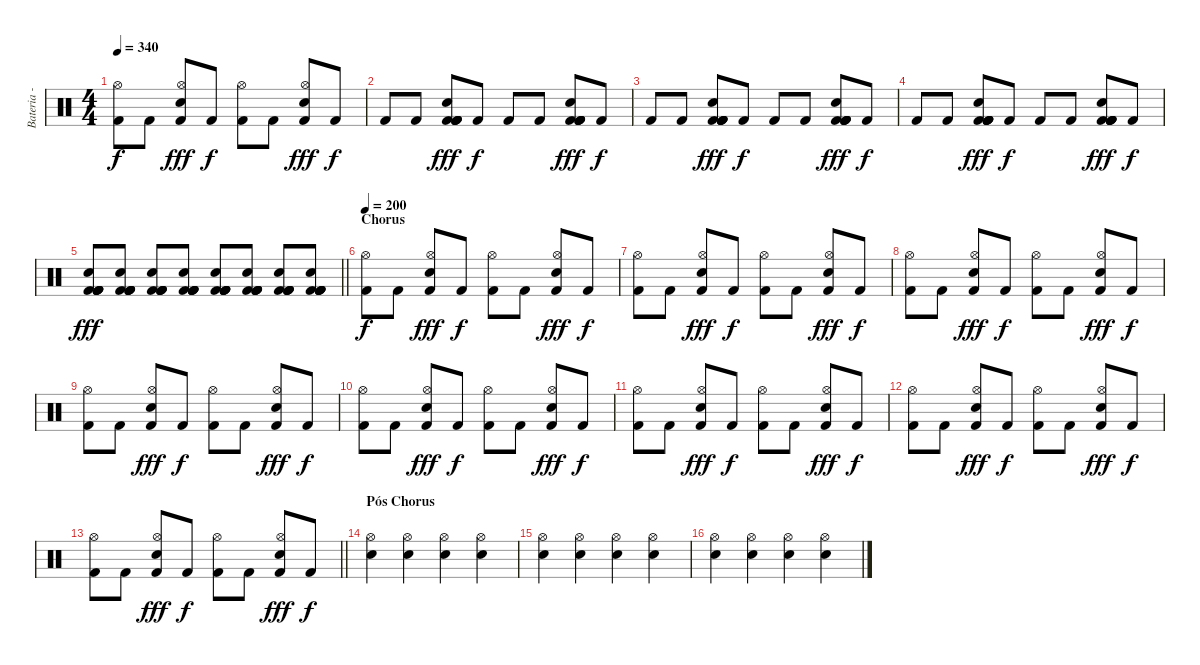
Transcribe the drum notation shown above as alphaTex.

\track ("Bateria - Larzon" "Bateria - ") {instrument percussion}
\staff {score}
\articulation defaults
\ts (4 4)
\tempo 340
\clef neutral
\ks c
("Kick (hit) 2" "Hi-Hat (open)").8{dy f} "Kick (hit) 2".8 ("Kick (hit) 2" "Hi-Hat (open)" "Snare (hit) 2").8{dy fff} "Kick (hit) 2".8{dy f} ("Kick (hit) 2" "Hi-Hat (open)").8 "Kick (hit) 2".8 ("Kick (hit) 2" "Hi-Hat (open)" "Snare (hit) 2").8{dy fff} "Kick (hit) 2".8{dy f} |
"Kick (hit) 2".8 "Kick (hit) 2".8 ("Kick (hit) 2" "Kick (hit) 2" "Kick (hit) 2" "Kick (hit) 2" "Kick (hit) 2" "Snare (hit) 2").8{dy fff} "Kick (hit) 2".8{dy f} "Kick (hit) 2".8 "Kick (hit) 2".8 ("Kick (hit) 2" "Kick (hit) 2" "Kick (hit) 2" "Kick (hit) 2" "Kick (hit) 2" "Snare (hit) 2").8{dy fff} "Kick (hit) 2".8{dy f} |
"Kick (hit) 2".8 "Kick (hit) 2".8 ("Kick (hit) 2" "Kick (hit) 2" "Kick (hit) 2" "Kick (hit) 2" "Kick (hit) 2" "Snare (hit) 2").8{dy fff} "Kick (hit) 2".8{dy f} "Kick (hit) 2".8 "Kick (hit) 2".8 ("Kick (hit) 2" "Kick (hit) 2" "Kick (hit) 2" "Kick (hit) 2" "Kick (hit) 2" "Snare (hit) 2").8{dy fff} "Kick (hit) 2".8{dy f} |
"Kick (hit) 2".8 "Kick (hit) 2".8 ("Kick (hit) 2" "Kick (hit) 2" "Kick (hit) 2" "Kick (hit) 2" "Kick (hit) 2" "Snare (hit) 2").8{dy fff} "Kick (hit) 2".8{dy f} "Kick (hit) 2".8 "Kick (hit) 2".8 ("Kick (hit) 2" "Kick (hit) 2" "Kick (hit) 2" "Kick (hit) 2" "Kick (hit) 2" "Snare (hit) 2").8{dy fff} "Kick (hit) 2".8{dy f} |
\barLineRight lightlight
("Kick (hit) 2" "Kick (hit) 2" "Kick (hit) 2" "Kick (hit) 2" "Kick (hit) 2" "Snare (hit) 2").8{dy fff} ("Kick (hit) 2" "Kick (hit) 2" "Kick (hit) 2" "Kick (hit) 2" "Kick (hit) 2" "Snare (hit) 2").8 ("Kick (hit) 2" "Kick (hit) 2" "Kick (hit) 2" "Kick (hit) 2" "Kick (hit) 2" "Snare (hit) 2").8 ("Kick (hit) 2" "Kick (hit) 2" "Kick (hit) 2" "Kick (hit) 2" "Kick (hit) 2" "Snare (hit) 2").8 ("Kick (hit) 2" "Kick (hit) 2" "Kick (hit) 2" "Kick (hit) 2" "Kick (hit) 2" "Snare (hit) 2").8 ("Kick (hit) 2" "Kick (hit) 2" "Kick (hit) 2" "Kick (hit) 2" "Kick (hit) 2" "Snare (hit) 2").8 ("Kick (hit) 2" "Kick (hit) 2" "Kick (hit) 2" "Kick (hit) 2" "Kick (hit) 2" "Snare (hit) 2").8 ("Kick (hit) 2" "Kick (hit) 2" "Kick (hit) 2" "Kick (hit) 2" "Kick (hit) 2" "Snare (hit) 2").8 |
\section ("" "Chorus")
\tempo 200
("Kick (hit) 2" "Hi-Hat (open)").8{dy f} "Kick (hit) 2".8 ("Kick (hit) 2" "Hi-Hat (open)" "Snare (hit) 2").8{dy fff} "Kick (hit) 2".8{dy f} ("Kick (hit) 2" "Hi-Hat (open)").8 "Kick (hit) 2".8 ("Kick (hit) 2" "Hi-Hat (open)" "Snare (hit) 2").8{dy fff} "Kick (hit) 2".8{dy f} |
("Kick (hit) 2" "Hi-Hat (open)").8 "Kick (hit) 2".8 ("Kick (hit) 2" "Hi-Hat (open)" "Snare (hit) 2").8{dy fff} "Kick (hit) 2".8{dy f} ("Kick (hit) 2" "Hi-Hat (open)").8 "Kick (hit) 2".8 ("Kick (hit) 2" "Hi-Hat (open)" "Snare (hit) 2").8{dy fff} "Kick (hit) 2".8{dy f} |
("Kick (hit) 2" "Hi-Hat (open)").8 "Kick (hit) 2".8 ("Kick (hit) 2" "Hi-Hat (open)" "Snare (hit) 2").8{dy fff} "Kick (hit) 2".8{dy f} ("Kick (hit) 2" "Hi-Hat (open)").8 "Kick (hit) 2".8 ("Kick (hit) 2" "Hi-Hat (open)" "Snare (hit) 2").8{dy fff} "Kick (hit) 2".8{dy f} |
("Kick (hit) 2" "Hi-Hat (open)").8 "Kick (hit) 2".8 ("Kick (hit) 2" "Hi-Hat (open)" "Snare (hit) 2").8{dy fff} "Kick (hit) 2".8{dy f} ("Kick (hit) 2" "Hi-Hat (open)").8 "Kick (hit) 2".8 ("Kick (hit) 2" "Hi-Hat (open)" "Snare (hit) 2").8{dy fff} "Kick (hit) 2".8{dy f} |
("Kick (hit) 2" "Hi-Hat (open)").8 "Kick (hit) 2".8 ("Kick (hit) 2" "Hi-Hat (open)" "Snare (hit) 2").8{dy fff} "Kick (hit) 2".8{dy f} ("Kick (hit) 2" "Hi-Hat (open)").8 "Kick (hit) 2".8 ("Kick (hit) 2" "Hi-Hat (open)" "Snare (hit) 2").8{dy fff} "Kick (hit) 2".8{dy f} |
("Kick (hit) 2" "Hi-Hat (open)").8 "Kick (hit) 2".8 ("Kick (hit) 2" "Hi-Hat (open)" "Snare (hit) 2").8{dy fff} "Kick (hit) 2".8{dy f} ("Kick (hit) 2" "Hi-Hat (open)").8 "Kick (hit) 2".8 ("Kick (hit) 2" "Hi-Hat (open)" "Snare (hit) 2").8{dy fff} "Kick (hit) 2".8{dy f} |
("Kick (hit) 2" "Hi-Hat (open)").8 "Kick (hit) 2".8 ("Kick (hit) 2" "Hi-Hat (open)" "Snare (hit) 2").8{dy fff} "Kick (hit) 2".8{dy f} ("Kick (hit) 2" "Hi-Hat (open)").8 "Kick (hit) 2".8 ("Kick (hit) 2" "Hi-Hat (open)" "Snare (hit) 2").8{dy fff} "Kick (hit) 2".8{dy f} |
\barLineRight lightlight
("Kick (hit) 2" "Hi-Hat (open)").8 "Kick (hit) 2".8 ("Kick (hit) 2" "Hi-Hat (open)" "Snare (hit) 2").8{dy fff} "Kick (hit) 2".8{dy f} ("Kick (hit) 2" "Hi-Hat (open)").8 "Kick (hit) 2".8 ("Kick (hit) 2" "Hi-Hat (open)" "Snare (hit) 2").8{dy fff} "Kick (hit) 2".8{dy f} |
\section ("" "Pós Chorus")
("Snare (hit) 2" "Hi-Hat (open)").4 ("Snare (hit) 2" "Hi-Hat (open)").4 ("Snare (hit) 2" "Hi-Hat (open)").4 ("Snare (hit) 2" "Hi-Hat (open)").4 |
("Snare (hit) 2" "Hi-Hat (open)").4 ("Snare (hit) 2" "Hi-Hat (open)").4 ("Snare (hit) 2" "Hi-Hat (open)").4 ("Snare (hit) 2" "Hi-Hat (open)").4 |
("Snare (hit) 2" "Hi-Hat (open)").4 ("Snare (hit) 2" "Hi-Hat (open)").4 ("Snare (hit) 2" "Hi-Hat (open)").4 ("Snare (hit) 2" "Hi-Hat (open)").4
